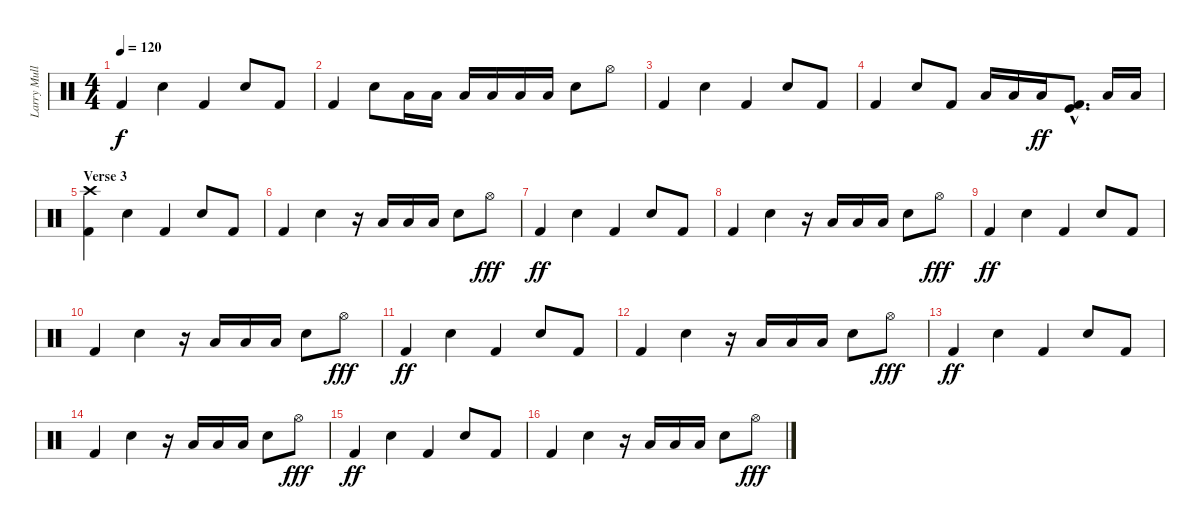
\track ("Larry Mullen Jr" "Larry Mull") {instrument percussion}
\staff {score}
\articulation defaults
\ts (4 4)
\tempo 120
\clef neutral
\ks c "Kick (hit) 2".4{dy f} "Snare (hit) 2".4 "Kick (hit) 2".4 "Snare (hit) 2".8 "Kick (hit) 2".8
|
"Kick (hit) 2".4 "Snare (hit) 2".8 "Low Floor Tom (hit)".16 "Low Floor Tom (hit)".16 "Low Floor Tom (hit)".16 "Low Floor Tom (hit)".16 "Low Floor Tom (hit)".16 "Low Floor Tom (hit)".16 "Snare (hit) 2".8 "Hi-Hat (open)".8 |
"Kick (hit) 2".4 "Snare (hit) 2".4 "Kick (hit) 2".4 "Snare (hit) 2".8 "Kick (hit) 2".8 |
"Kick (hit) 2".4 "Snare (hit) 2".8 "Kick (hit) 2".8 "Low Floor Tom (hit)".16 "Low Floor Tom (hit)".16 "Low Floor Tom (hit)".16{dy ff} ("Kick (hit)"{hac} "Kick (hit) 2"{hac}).8{d} "Low Floor Tom (hit)".16 "Low Floor Tom (hit)".16 |
\section ("" "Verse 3")
("Kick (hit) 2" "Crash high (hit)").4 "Snare (hit) 2".4 "Kick (hit) 2".4 "Snare (hit) 2".8 "Kick (hit) 2".8 |
"Kick (hit) 2".4 "Snare (hit) 2".4 r.16 "Low Floor Tom (hit)".16 "Low Floor Tom (hit)".16 "Low Floor Tom (hit)".16 "Snare (hit) 2".8 "Hi-Hat (open)".8{dy fff} |
"Kick (hit) 2".4{dy ff} "Snare (hit) 2".4 "Kick (hit) 2".4 "Snare (hit) 2".8 "Kick (hit) 2".8 |
"Kick (hit) 2".4 "Snare (hit) 2".4 r.16 "Low Floor Tom (hit)".16 "Low Floor Tom (hit)".16 "Low Floor Tom (hit)".16 "Snare (hit) 2".8 "Hi-Hat (open)".8{dy fff} |
"Kick (hit) 2".4{dy ff} "Snare (hit) 2".4 "Kick (hit) 2".4 "Snare (hit) 2".8 "Kick (hit) 2".8 |
"Kick (hit) 2".4 "Snare (hit) 2".4 r.16 "Low Floor Tom (hit)".16 "Low Floor Tom (hit)".16 "Low Floor Tom (hit)".16 "Snare (hit) 2".8 "Hi-Hat (open)".8{dy fff} |
"Kick (hit) 2".4{dy ff} "Snare (hit) 2".4 "Kick (hit) 2".4 "Snare (hit) 2".8 "Kick (hit) 2".8 |
"Kick (hit) 2".4 "Snare (hit) 2".4 r.16 "Low Floor Tom (hit)".16 "Low Floor Tom (hit)".16 "Low Floor Tom (hit)".16 "Snare (hit) 2".8 "Hi-Hat (open)".8{dy fff} |
"Kick (hit) 2".4{dy ff} "Snare (hit) 2".4 "Kick (hit) 2".4 "Snare (hit) 2".8 "Kick (hit) 2".8 |
"Kick (hit) 2".4 "Snare (hit) 2".4 r.16 "Low Floor Tom (hit)".16 "Low Floor Tom (hit)".16 "Low Floor Tom (hit)".16 "Snare (hit) 2".8 "Hi-Hat (open)".8{dy fff} |
"Kick (hit) 2".4{dy ff} "Snare (hit) 2".4 "Kick (hit) 2".4 "Snare (hit) 2".8 "Kick (hit) 2".8 |
"Kick (hit) 2".4 "Snare (hit) 2".4 r.16 "Low Floor Tom (hit)".16 "Low Floor Tom (hit)".16 "Low Floor Tom (hit)".16 "Snare (hit) 2".8 "Hi-Hat (open)".8{dy fff}
